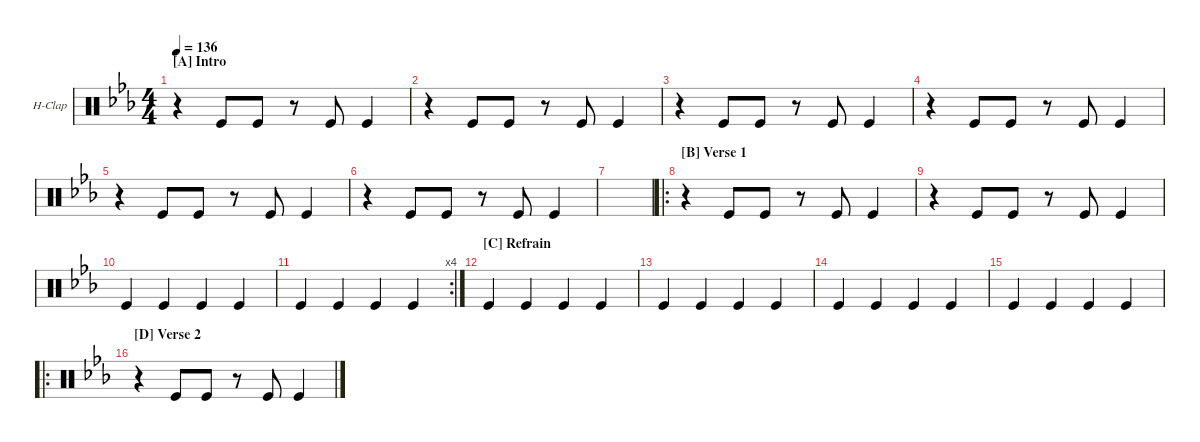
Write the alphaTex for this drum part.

\defaultSystemsLayout 4
\hideDynamics
\bracketExtendMode groupsimilarinstruments
\firstSystemTrackNameOrientation horizontal
\otherSystemsTrackNameOrientation horizontal
\track ("Hand Clap" "H-Clap") {multiBarRest instrument percussion}
\staff {score}
\articulation defaults
\ts (4 4)
\section ("A" "Intro")
\tempo 136
\clef neutral
\ks eb
r.4{dy mf} "Kick (hit)".8 "Kick (hit)".8 r.8 "Kick (hit)".8 "Kick (hit)".4 |
r.4 "Kick (hit)".8 "Kick (hit)".8 r.8 "Kick (hit)".8 "Kick (hit)".4 |
r.4 "Kick (hit)".8 "Kick (hit)".8 r.8 "Kick (hit)".8 "Kick (hit)".4 |
r.4 "Kick (hit)".8 "Kick (hit)".8 r.8 "Kick (hit)".8 "Kick (hit)".4 |
r.4 "Kick (hit)".8 "Kick (hit)".8 r.8 "Kick (hit)".8 "Kick (hit)".4 |
r.4 "Kick (hit)".8 "Kick (hit)".8 r.8 "Kick (hit)".8 "Kick (hit)".4 |
|
\ro
\section ("B" "Verse 1")
r.4 "Kick (hit)".8 "Kick (hit)".8 r.8 "Kick (hit)".8 "Kick (hit)".4 |
r.4 "Kick (hit)".8 "Kick (hit)".8 r.8 "Kick (hit)".8 "Kick (hit)".4 |
"Kick (hit)".4 "Kick (hit)".4 "Kick (hit)".4 "Kick (hit)".4 |
\rc 4 "Kick (hit)".4 "Kick (hit)".4 "Kick (hit)".4 "Kick (hit)".4
|
\section ("C" "Refrain")
"Kick (hit)".4 "Kick (hit)".4 "Kick (hit)".4 "Kick (hit)".4 |
"Kick (hit)".4 "Kick (hit)".4 "Kick (hit)".4 "Kick (hit)".4 |
"Kick (hit)".4 "Kick (hit)".4 "Kick (hit)".4 "Kick (hit)".4 |
"Kick (hit)".4 "Kick (hit)".4 "Kick (hit)".4 "Kick (hit)".4 |
\ro
\section ("D" "Verse 2")
r.4 "Kick (hit)".8 "Kick (hit)".8 r.8 "Kick (hit)".8 "Kick (hit)".4
